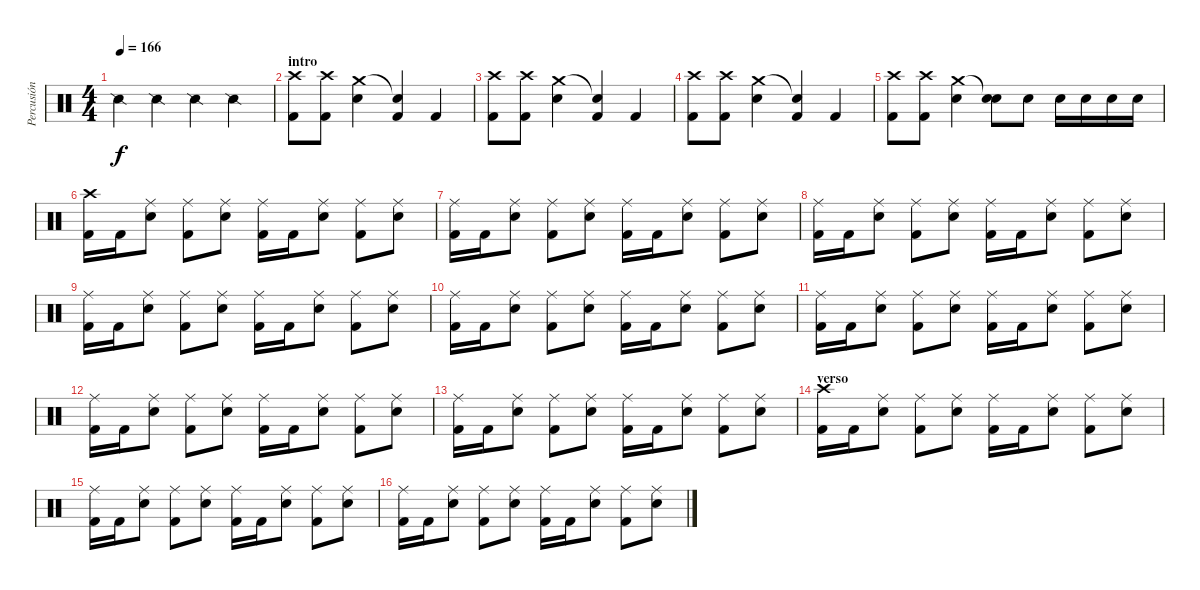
\track ("Percusión" "Percusión") {instrument percussion}
\staff {score}
\articulation defaults
\ts (4 4)
\tempo 166
\clef neutral
\ks c "Snare (side stick) 2".4{dy f} "Snare (side stick) 2".4 "Snare (side stick) 2".4 "Snare (side stick) 2".4
|
\section ("" "intro")
("Crash high (hit)" "Kick (hit) 2").8 ("Crash high (hit)" "Kick (hit) 2").8 ("Crash medium (hit)" "Electric Snare (hit)").4 ("Snare (hit)"{t} "Kick (hit) 2").4 "Kick (hit) 2".4 |
("Crash high (hit)" "Kick (hit) 2").8 ("Crash high (hit)" "Kick (hit) 2").8 ("Crash medium (hit)" "Electric Snare (hit)").4 ("Snare (hit)"{t} "Kick (hit) 2").4 "Kick (hit) 2".4 |
("Crash high (hit)" "Kick (hit) 2").8 ("Crash high (hit)" "Kick (hit) 2").8 ("Crash medium (hit)" "Electric Snare (hit)").4 ("Snare (hit)"{t} "Kick (hit) 2").4 "Kick (hit) 2".4 |
("Crash high (hit)" "Kick (hit) 2").8 ("Crash high (hit)" "Kick (hit) 2").8 ("Crash medium (hit)" "Electric Snare (hit)").4 ("Snare (hit)"{t} "Electric Snare (hit)").8 "Electric Snare (hit)".8 "Electric Snare (hit)".16 "Electric Snare (hit)".16 "Electric Snare (hit)".16 "Electric Snare (hit)".16 |
("Crash high (hit)" "Kick (hit) 2").16 "Kick (hit) 2".16 ("Ride (middle)" "Electric Snare (hit)").8 ("Ride (middle)" "Kick (hit) 2").8 ("Ride (middle)" "Electric Snare (hit)").8 ("Ride (middle)" "Kick (hit) 2").16 "Kick (hit) 2".16 ("Ride (middle)" "Electric Snare (hit)").8 ("Ride (middle)" "Kick (hit) 2").8 ("Ride (middle)" "Electric Snare (hit)").8 |
("Ride (middle)" "Kick (hit) 2").16 "Kick (hit) 2".16 ("Ride (middle)" "Electric Snare (hit)").8 ("Ride (middle)" "Kick (hit) 2").8 ("Ride (middle)" "Electric Snare (hit)").8 ("Ride (middle)" "Kick (hit) 2").16 "Kick (hit) 2".16 ("Ride (middle)" "Electric Snare (hit)").8 ("Ride (middle)" "Kick (hit) 2").8 ("Ride (middle)" "Electric Snare (hit)").8 |
("Ride (middle)" "Kick (hit) 2").16 "Kick (hit) 2".16 ("Ride (middle)" "Electric Snare (hit)").8 ("Ride (middle)" "Kick (hit) 2").8 ("Ride (middle)" "Electric Snare (hit)").8 ("Ride (middle)" "Kick (hit) 2").16 "Kick (hit) 2".16 ("Ride (middle)" "Electric Snare (hit)").8 ("Ride (middle)" "Kick (hit) 2").8 ("Ride (middle)" "Electric Snare (hit)").8 |
("Ride (middle)" "Kick (hit) 2").16 "Kick (hit) 2".16 ("Ride (middle)" "Electric Snare (hit)").8 ("Ride (middle)" "Kick (hit) 2").8 ("Ride (middle)" "Electric Snare (hit)").8 ("Ride (middle)" "Kick (hit) 2").16 "Kick (hit) 2".16 ("Ride (middle)" "Electric Snare (hit)").8 ("Ride (middle)" "Kick (hit) 2").8 ("Ride (middle)" "Electric Snare (hit)").8 |
("Ride (middle)" "Kick (hit) 2").16 "Kick (hit) 2".16 ("Ride (middle)" "Electric Snare (hit)").8 ("Ride (middle)" "Kick (hit) 2").8 ("Ride (middle)" "Electric Snare (hit)").8 ("Ride (middle)" "Kick (hit) 2").16 "Kick (hit) 2".16 ("Ride (middle)" "Electric Snare (hit)").8 ("Ride (middle)" "Kick (hit) 2").8 ("Ride (middle)" "Electric Snare (hit)").8 |
("Ride (middle)" "Kick (hit) 2").16 "Kick (hit) 2".16 ("Ride (middle)" "Electric Snare (hit)").8 ("Ride (middle)" "Kick (hit) 2").8 ("Ride (middle)" "Electric Snare (hit)").8 ("Ride (middle)" "Kick (hit) 2").16 "Kick (hit) 2".16 ("Ride (middle)" "Electric Snare (hit)").8 ("Ride (middle)" "Kick (hit) 2").8 ("Ride (middle)" "Electric Snare (hit)").8 |
("Ride (middle)" "Kick (hit) 2").16 "Kick (hit) 2".16 ("Ride (middle)" "Electric Snare (hit)").8 ("Ride (middle)" "Kick (hit) 2").8 ("Ride (middle)" "Electric Snare (hit)").8 ("Ride (middle)" "Kick (hit) 2").16 "Kick (hit) 2".16 ("Ride (middle)" "Electric Snare (hit)").8 ("Ride (middle)" "Kick (hit) 2").8 ("Ride (middle)" "Electric Snare (hit)").8 |
("Ride (middle)" "Kick (hit) 2").16 "Kick (hit) 2".16 ("Ride (middle)" "Electric Snare (hit)").8 ("Ride (middle)" "Kick (hit) 2").8 ("Ride (middle)" "Electric Snare (hit)").8 ("Ride (middle)" "Kick (hit) 2").16 "Kick (hit) 2".16 ("Ride (middle)" "Electric Snare (hit)").8 ("Ride (middle)" "Kick (hit) 2").8 ("Ride (middle)" "Electric Snare (hit)").8 |
\section ("" "verso")
("Crash high (hit)" "Kick (hit) 2").16 "Kick (hit) 2".16 ("Ride (middle)" "Electric Snare (hit)").8 ("Ride (middle)" "Kick (hit) 2").8 ("Ride (middle)" "Electric Snare (hit)").8 ("Ride (middle)" "Kick (hit) 2").16 "Kick (hit) 2".16 ("Ride (middle)" "Electric Snare (hit)").8 ("Ride (middle)" "Kick (hit) 2").8 ("Ride (middle)" "Electric Snare (hit)").8 |
("Ride (middle)" "Kick (hit) 2").16 "Kick (hit) 2".16 ("Ride (middle)" "Electric Snare (hit)").8 ("Ride (middle)" "Kick (hit) 2").8 ("Ride (middle)" "Electric Snare (hit)").8 ("Ride (middle)" "Kick (hit) 2").16 "Kick (hit) 2".16 ("Ride (middle)" "Electric Snare (hit)").8 ("Ride (middle)" "Kick (hit) 2").8 ("Ride (middle)" "Electric Snare (hit)").8 |
("Ride (middle)" "Kick (hit) 2").16 "Kick (hit) 2".16 ("Ride (middle)" "Electric Snare (hit)").8 ("Ride (middle)" "Kick (hit) 2").8 ("Ride (middle)" "Electric Snare (hit)").8 ("Ride (middle)" "Kick (hit) 2").16 "Kick (hit) 2".16 ("Ride (middle)" "Electric Snare (hit)").8 ("Ride (middle)" "Kick (hit) 2").8 ("Ride (middle)" "Electric Snare (hit)").8
